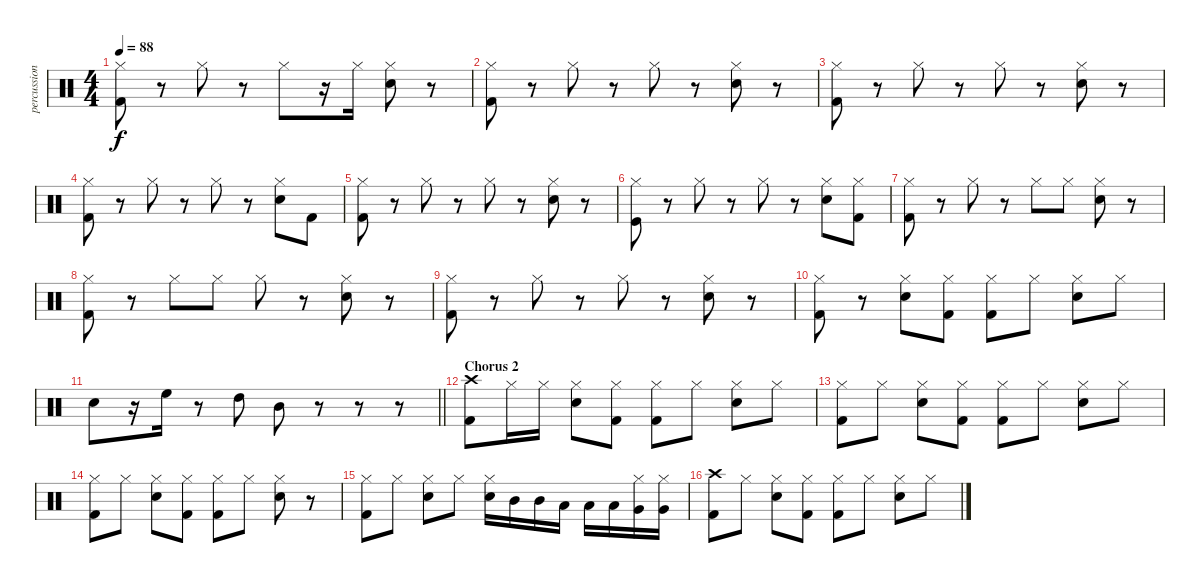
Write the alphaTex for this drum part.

\track ("percussion" "percussion") {instrument percussion}
\staff {score}
\articulation defaults
\ts (4 4)
\tempo 88
\clef neutral
\ks c
("Hi-Hat (closed)" "Kick (hit) 2").8{dy f} r.8 "Hi-Hat (closed)".8 r.8 "Hi-Hat (closed)".8 r.16 "Hi-Hat (closed)".16 ("Snare (hit) 2" "Hi-Hat (closed)").8 r.8 |
("Hi-Hat (closed)" "Kick (hit) 2").8 r.8 "Hi-Hat (closed)".8 r.8 "Hi-Hat (closed)".8 r.8 ("Snare (hit) 2" "Hi-Hat (closed)").8 r.8 |
("Hi-Hat (closed)" "Kick (hit) 2").8 r.8 "Hi-Hat (closed)".8 r.8 "Hi-Hat (closed)".8 r.8 ("Snare (hit) 2" "Hi-Hat (closed)").8 r.8 |
("Hi-Hat (closed)" "Kick (hit) 2").8 r.8 "Hi-Hat (closed)".8 r.8 "Hi-Hat (closed)".8 r.8 ("Snare (hit) 2" "Hi-Hat (closed)").8 "Kick (hit) 2".8 |
("Hi-Hat (closed)" "Kick (hit) 2").8 r.8 "Hi-Hat (closed)".8 r.8 "Hi-Hat (closed)".8 r.8 ("Snare (hit) 2" "Hi-Hat (closed)").8 r.8 |
("Hi-Hat (closed)" "Kick (hit)").8 r.8 "Hi-Hat (closed)".8 r.8 "Hi-Hat (closed)".8 r.8 ("Snare (hit) 2" "Hi-Hat (closed)").8 ("Hi-Hat (closed)" "Kick (hit) 2").8 |
("Hi-Hat (closed)" "Kick (hit) 2").8 r.8 "Hi-Hat (closed)".8 r.8 "Hi-Hat (closed)".8 "Hi-Hat (closed)".8 ("Snare (hit) 2" "Hi-Hat (closed)").8 r.8 |
("Hi-Hat (closed)" "Kick (hit) 2").8 r.8 "Hi-Hat (closed)".8 "Hi-Hat (closed)".8 "Hi-Hat (closed)".8 r.8 ("Snare (hit) 2" "Hi-Hat (closed)").8 r.8 |
("Hi-Hat (closed)" "Kick (hit) 2").8 r.8 "Hi-Hat (closed)".8 r.8 "Hi-Hat (closed)".8 r.8 ("Snare (hit) 2" "Hi-Hat (closed)").8 r.8 |
("Hi-Hat (closed)" "Kick (hit) 2").8 r.8 ("Snare (hit) 2" "Hi-Hat (closed)").8 ("Hi-Hat (closed)" "Kick (hit) 2").8 ("Hi-Hat (closed)" "Kick (hit) 2").8 "Hi-Hat (closed)".8 ("Snare (hit) 2" "Hi-Hat (closed)").8 "Hi-Hat (closed)".8 |
\barLineRight lightlight "Snare (hit) 2".8
r.16 "High Floor Tom (hit)".16 r.8 "High Tom (hit)".8 "Mid Tom (hit)".8 r.8 r.8 r.8 |
\section ("" "Chorus 2")
("Crash high (hit)" "Kick (hit) 2").8 "Hi-Hat (closed)".16 "Hi-Hat (closed)".16 ("Snare (hit) 2" "Hi-Hat (closed)").8 ("Hi-Hat (closed)" "Kick (hit) 2").8 ("Hi-Hat (closed)" "Kick (hit) 2").8 "Hi-Hat (closed)".8 ("Snare (hit) 2" "Hi-Hat (closed)").8 "Hi-Hat (closed)".8 |
("Hi-Hat (closed)" "Kick (hit) 2").8 "Hi-Hat (closed)".8 ("Snare (hit) 2" "Hi-Hat (closed)").8 ("Hi-Hat (closed)" "Kick (hit) 2").8 ("Hi-Hat (closed)" "Kick (hit) 2").8 "Hi-Hat (closed)".8 ("Snare (hit) 2" "Hi-Hat (closed)").8 "Hi-Hat (closed)".8 |
("Hi-Hat (closed)" "Kick (hit) 2").8 "Hi-Hat (closed)".8 ("Snare (hit) 2" "Hi-Hat (closed)").8 ("Hi-Hat (closed)" "Kick (hit) 2").8 ("Hi-Hat (closed)" "Kick (hit) 2").8 "Hi-Hat (closed)".8 ("Snare (hit) 2" "Hi-Hat (closed)").8 r.8 |
("Hi-Hat (closed)" "Kick (hit) 2").8 "Hi-Hat (closed)".8 ("Snare (hit) 2" "Hi-Hat (closed)").8 "Hi-Hat (closed)".8 ("Snare (hit) 2" "Hi-Hat (closed)").16 "Mid Tom (hit)".16 "Mid Tom (hit)".16 "Low Tom (hit)".16 "Low Tom (hit)".16 "Low Tom (hit)".16 ("Very Low Tom (hit)" "Hi-Hat (closed)").16 ("Very Low Tom (hit)" "Hi-Hat (closed)").16 |
("Crash high (hit)" "Kick (hit) 2").8 "Hi-Hat (closed)".8 ("Snare (hit) 2" "Hi-Hat (closed)").8 ("Hi-Hat (closed)" "Kick (hit) 2").8 ("Hi-Hat (closed)" "Kick (hit) 2").8 "Hi-Hat (closed)".8 ("Snare (hit) 2" "Hi-Hat (closed)").8 "Hi-Hat (closed)".8
